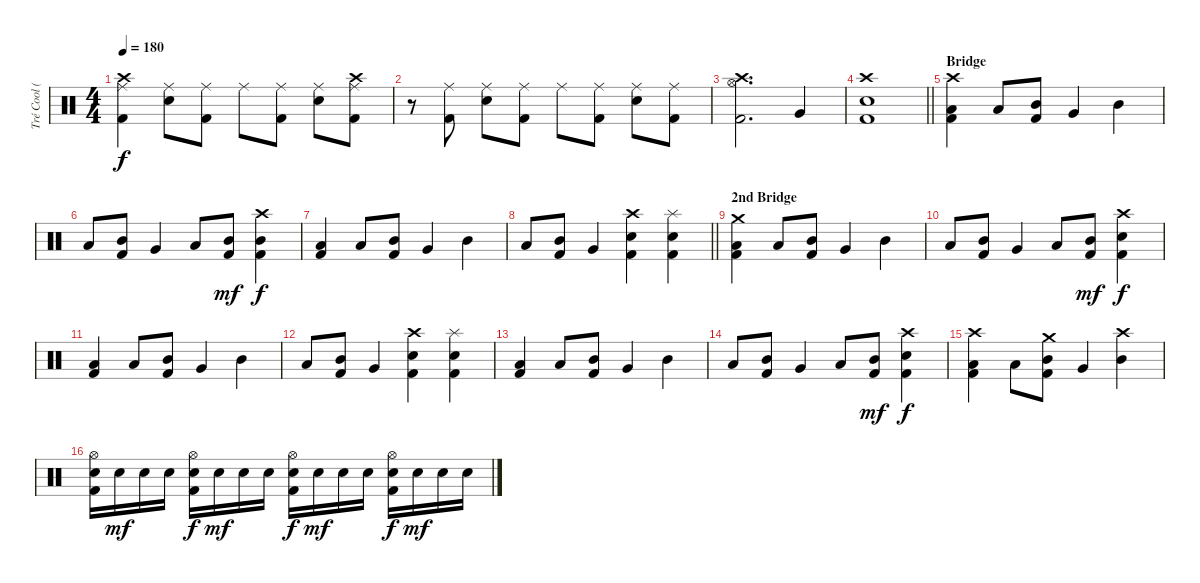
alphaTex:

\track ("Tré Cool (Drums)" "Tré Cool (") {instrument percussion}
\staff {score}
\articulation defaults
\ts (4 4)
\tempo 180
\clef neutral
\ks c
("Crash high (hit)" "Ride (middle)" "Kick (hit) 2").4{dy f} ("Ride (middle)" "Electric Snare (hit)").8 ("Ride (middle)" "Kick (hit) 2").8 "Ride (middle)".8 ("Ride (middle)" "Kick (hit) 2").8 ("Ride (middle)" "Electric Snare (hit)").8 ("Crash high (hit)" "Ride (middle)" "Kick (hit) 2").8 |
r.8 ("Ride (middle)" "Kick (hit) 2").8 ("Ride (middle)" "Electric Snare (hit)").8 ("Ride (middle)" "Kick (hit) 2").8 "Ride (middle)".8 ("Ride (middle)" "Kick (hit) 2").8 ("Ride (middle)" "Electric Snare (hit)").8 ("Ride (middle)" "Kick (hit) 2").8 |
("Crash high (hit)" "Hi-Hat (open)" "Kick (hit) 2").2{d} "Very Low Tom (hit)".4 |
\barLineRight lightlight
("Crash high (hit)" "Electric Snare (hit)" "Kick (hit) 2").1 |
\section ("" "Bridge")
("Crash high (hit)" "Low Tom (hit)" "Kick (hit) 2").4 "Low Tom (hit)".8 ("Mid Tom (hit)" "Kick (hit) 2").8 "Very Low Tom (hit)".4 "Mid Tom (hit)".4 |
"Low Tom (hit)".8 ("Mid Tom (hit)" "Kick (hit) 2").8 "Very Low Tom (hit)".4 "Low Tom (hit)".8 ("Mid Tom (hit)" "Kick (hit) 2").8{dy mf} ("Crash high (hit)" "Mid Tom (hit)" "Kick (hit) 2").4{dy f} |
("Low Tom (hit)" "Kick (hit) 2").4 "Low Tom (hit)".8 ("Mid Tom (hit)" "Kick (hit) 2").8 "Very Low Tom (hit)".4 "Mid Tom (hit)".4 |
\barLineRight lightlight "Low Tom (hit)".8
("Mid Tom (hit)" "Kick (hit) 2").8 "Very Low Tom (hit)".4 ("Crash high (hit)" "Electric Snare (hit)" "Kick (hit) 2").4 ("Splash (hit)" "Electric Snare (hit)" "Kick (hit) 2").4 |
\section ("" "2nd Bridge")
("Crash medium (hit)" "Low Tom (hit)" "Kick (hit) 2").4 "Low Tom (hit)".8 ("Mid Tom (hit)" "Kick (hit) 2").8 "Very Low Tom (hit)".4 "Mid Tom (hit)".4 |
"Low Tom (hit)".8 ("Mid Tom (hit)" "Kick (hit) 2").8 "Very Low Tom (hit)".4 "Low Tom (hit)".8 ("Mid Tom (hit)" "Kick (hit) 2").8{dy mf} ("Crash high (hit)" "Electric Snare (hit)" "Kick (hit) 2").4{dy f} |
("Low Tom (hit)" "Kick (hit) 2").4 "Low Tom (hit)".8 ("Mid Tom (hit)" "Kick (hit) 2").8 "Very Low Tom (hit)".4 "Mid Tom (hit)".4 |
"Low Tom (hit)".8 ("Mid Tom (hit)" "Kick (hit) 2").8 "Very Low Tom (hit)".4 ("Crash high (hit)" "Electric Snare (hit)" "Kick (hit) 2").4 ("Splash (hit)" "Electric Snare (hit)" "Kick (hit) 2").4 |
("Low Tom (hit)" "Kick (hit) 2").4 "Low Tom (hit)".8 ("Mid Tom (hit)" "Kick (hit) 2").8 "Very Low Tom (hit)".4 "Mid Tom (hit)".4 |
"Low Tom (hit)".8 ("Mid Tom (hit)" "Kick (hit) 2").8 "Very Low Tom (hit)".4 "Low Tom (hit)".8 ("Mid Tom (hit)" "Kick (hit) 2").8{dy mf} ("Crash high (hit)" "Electric Snare (hit)" "Kick (hit) 2").4{dy f} |
("Crash high (hit)" "Low Tom (hit)" "Kick (hit) 2").4 "Low Tom (hit)".8 ("Crash medium (hit)" "Mid Tom (hit)" "Kick (hit) 2").8 "Very Low Tom (hit)".4 ("Crash high (hit)" "Mid Tom (hit)").4 |
("Hi-Hat (open)" "Electric Snare (hit)" "Kick (hit) 2").16 "Electric Snare (hit)".16{dy mf} "Electric Snare (hit)".16 "Electric Snare (hit)".16 ("Hi-Hat (open)" "Electric Snare (hit)" "Kick (hit) 2").16{dy f} "Electric Snare (hit)".16{dy mf} "Electric Snare (hit)".16 "Electric Snare (hit)".16 ("Hi-Hat (open)" "Electric Snare (hit)" "Kick (hit) 2").16{dy f} "Electric Snare (hit)".16{dy mf} "Electric Snare (hit)".16 "Electric Snare (hit)".16 ("Hi-Hat (open)" "Electric Snare (hit)" "Kick (hit) 2").16{dy f} "Electric Snare (hit)".16{dy mf} "Electric Snare (hit)".16 "Electric Snare (hit)".16
